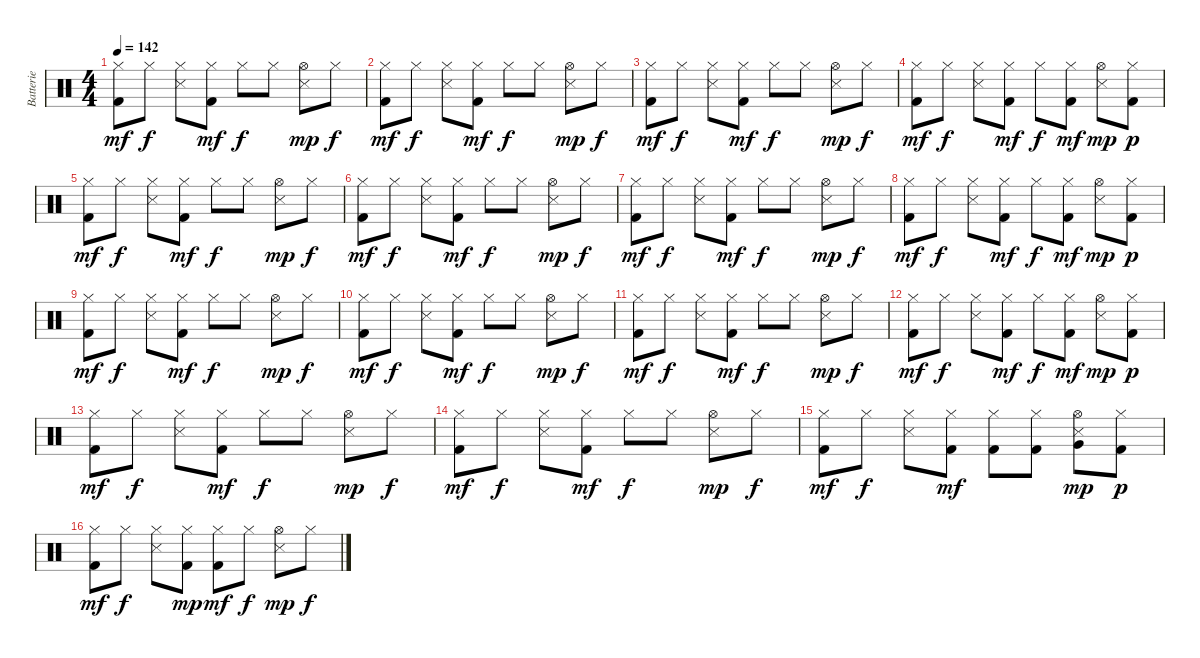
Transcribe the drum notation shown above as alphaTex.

\track ("Batterie" "Batterie") {instrument percussion}
\staff {score}
\articulation defaults
\ts (4 4)
\tempo 142
\clef neutral
\ks c
("Kick (hit) 2" "Hi-Hat (closed)").8{dy mf} "Hi-Hat (closed)".8{dy f} ("Hi-Hat (closed)" "Snare (side stick) 3").8 ("Kick (hit) 2" "Hi-Hat (closed)").8{dy mf} "Hi-Hat (closed)".8{dy f} "Hi-Hat (closed)".8 ("Hi-Hat (open)" "Snare (side stick) 3").8{dy mp} "Hi-Hat (closed)".8{dy f} |
("Kick (hit) 2" "Hi-Hat (closed)").8{dy mf} "Hi-Hat (closed)".8{dy f} ("Hi-Hat (closed)" "Snare (side stick) 3").8 ("Kick (hit) 2" "Hi-Hat (closed)").8{dy mf} "Hi-Hat (closed)".8{dy f} "Hi-Hat (closed)".8 ("Hi-Hat (open)" "Snare (side stick) 3").8{dy mp} "Hi-Hat (closed)".8{dy f} |
("Kick (hit) 2" "Hi-Hat (closed)").8{dy mf} "Hi-Hat (closed)".8{dy f} ("Hi-Hat (closed)" "Snare (side stick) 3").8 ("Kick (hit) 2" "Hi-Hat (closed)").8{dy mf} "Hi-Hat (closed)".8{dy f} "Hi-Hat (closed)".8 ("Hi-Hat (open)" "Snare (side stick) 3").8{dy mp} "Hi-Hat (closed)".8{dy f} |
("Kick (hit) 2" "Hi-Hat (closed)").8{dy mf} "Hi-Hat (closed)".8{dy f} ("Hi-Hat (closed)" "Snare (side stick) 3").8 ("Kick (hit) 2" "Hi-Hat (closed)").8{dy mf} "Hi-Hat (closed)".8{dy f} ("Kick (hit) 2" "Hi-Hat (closed)").8{dy mf} ("Hi-Hat (open)" "Snare (side stick) 3").8{dy mp} ("Kick (hit) 2" "Hi-Hat (closed)").8{dy p} |
("Kick (hit) 2" "Hi-Hat (closed)").8{dy mf} "Hi-Hat (closed)".8{dy f} ("Hi-Hat (closed)" "Snare (side stick) 3").8 ("Kick (hit) 2" "Hi-Hat (closed)").8{dy mf} "Hi-Hat (closed)".8{dy f} "Hi-Hat (closed)".8 ("Hi-Hat (open)" "Snare (side stick) 3").8{dy mp} "Hi-Hat (closed)".8{dy f} |
("Kick (hit) 2" "Hi-Hat (closed)").8{dy mf} "Hi-Hat (closed)".8{dy f} ("Hi-Hat (closed)" "Snare (side stick) 3").8 ("Kick (hit) 2" "Hi-Hat (closed)").8{dy mf} "Hi-Hat (closed)".8{dy f} "Hi-Hat (closed)".8 ("Hi-Hat (open)" "Snare (side stick) 3").8{dy mp} "Hi-Hat (closed)".8{dy f} |
("Kick (hit) 2" "Hi-Hat (closed)").8{dy mf} "Hi-Hat (closed)".8{dy f} ("Hi-Hat (closed)" "Snare (side stick) 3").8 ("Kick (hit) 2" "Hi-Hat (closed)").8{dy mf} "Hi-Hat (closed)".8{dy f} "Hi-Hat (closed)".8 ("Hi-Hat (open)" "Snare (side stick) 3").8{dy mp} "Hi-Hat (closed)".8{dy f} |
("Kick (hit) 2" "Hi-Hat (closed)").8{dy mf} "Hi-Hat (closed)".8{dy f} ("Hi-Hat (closed)" "Snare (side stick) 3").8 ("Kick (hit) 2" "Hi-Hat (closed)").8{dy mf} "Hi-Hat (closed)".8{dy f} ("Kick (hit) 2" "Hi-Hat (closed)").8{dy mf} ("Hi-Hat (open)" "Snare (side stick) 3").8{dy mp} ("Kick (hit) 2" "Hi-Hat (closed)").8{dy p} |
("Kick (hit) 2" "Hi-Hat (closed)").8{dy mf} "Hi-Hat (closed)".8{dy f} ("Hi-Hat (closed)" "Snare (side stick) 3").8 ("Kick (hit) 2" "Hi-Hat (closed)").8{dy mf} "Hi-Hat (closed)".8{dy f} "Hi-Hat (closed)".8 ("Hi-Hat (open)" "Snare (side stick) 3").8{dy mp} "Hi-Hat (closed)".8{dy f} |
("Kick (hit) 2" "Hi-Hat (closed)").8{dy mf} "Hi-Hat (closed)".8{dy f} ("Hi-Hat (closed)" "Snare (side stick) 3").8 ("Kick (hit) 2" "Hi-Hat (closed)").8{dy mf} "Hi-Hat (closed)".8{dy f} "Hi-Hat (closed)".8 ("Hi-Hat (open)" "Snare (side stick) 3").8{dy mp} "Hi-Hat (closed)".8{dy f} |
("Kick (hit) 2" "Hi-Hat (closed)").8{dy mf} "Hi-Hat (closed)".8{dy f} ("Hi-Hat (closed)" "Snare (side stick) 3").8 ("Kick (hit) 2" "Hi-Hat (closed)").8{dy mf} "Hi-Hat (closed)".8{dy f} "Hi-Hat (closed)".8 ("Hi-Hat (open)" "Snare (side stick) 3").8{dy mp} "Hi-Hat (closed)".8{dy f} |
("Kick (hit) 2" "Hi-Hat (closed)").8{dy mf} "Hi-Hat (closed)".8{dy f} ("Hi-Hat (closed)" "Snare (side stick) 3").8 ("Kick (hit) 2" "Hi-Hat (closed)").8{dy mf} "Hi-Hat (closed)".8{dy f} ("Kick (hit) 2" "Hi-Hat (closed)").8{dy mf} ("Hi-Hat (open)" "Snare (side stick) 3").8{dy mp} ("Kick (hit) 2" "Hi-Hat (closed)").8{dy p} |
("Kick (hit) 2" "Hi-Hat (closed)").8{dy mf} "Hi-Hat (closed)".8{dy f} ("Hi-Hat (closed)" "Snare (side stick) 3").8 ("Kick (hit) 2" "Hi-Hat (closed)").8{dy mf} "Hi-Hat (closed)".8{dy f} "Hi-Hat (closed)".8 ("Hi-Hat (open)" "Snare (side stick) 3").8{dy mp} "Hi-Hat (closed)".8{dy f} |
("Kick (hit) 2" "Hi-Hat (closed)").8{dy mf} "Hi-Hat (closed)".8{dy f} ("Hi-Hat (closed)" "Snare (side stick) 3").8 ("Kick (hit) 2" "Hi-Hat (closed)").8{dy mf} "Hi-Hat (closed)".8{dy f} "Hi-Hat (closed)".8 ("Hi-Hat (open)" "Snare (side stick) 3").8{dy mp} "Hi-Hat (closed)".8{dy f} |
("Kick (hit) 2" "Hi-Hat (closed)").8{dy mf} "Hi-Hat (closed)".8{dy f} ("Hi-Hat (closed)" "Snare (side stick) 3").8 ("Kick (hit) 2" "Hi-Hat (closed)").8{dy mf} ("Kick (hit) 2" "Hi-Hat (closed)").8 ("Kick (hit) 2" "Hi-Hat (closed)").8 ("Hi-Hat (open)" "Very Low Tom (hit)" "Snare (side stick) 3").8{dy mp} ("Kick (hit) 2" "Hi-Hat (closed)").8{dy p} |
("Kick (hit) 2" "Hi-Hat (closed)").8{dy mf} "Hi-Hat (closed)".8{dy f} ("Hi-Hat (closed)" "Snare (side stick) 3").8 ("Kick (hit) 2" "Hi-Hat (closed)").8{dy mp} ("Kick (hit) 2" "Hi-Hat (closed)").8{dy mf} "Hi-Hat (closed)".8{dy f} ("Hi-Hat (open)" "Snare (side stick) 3").8{dy mp} "Hi-Hat (closed)".8{dy f}
